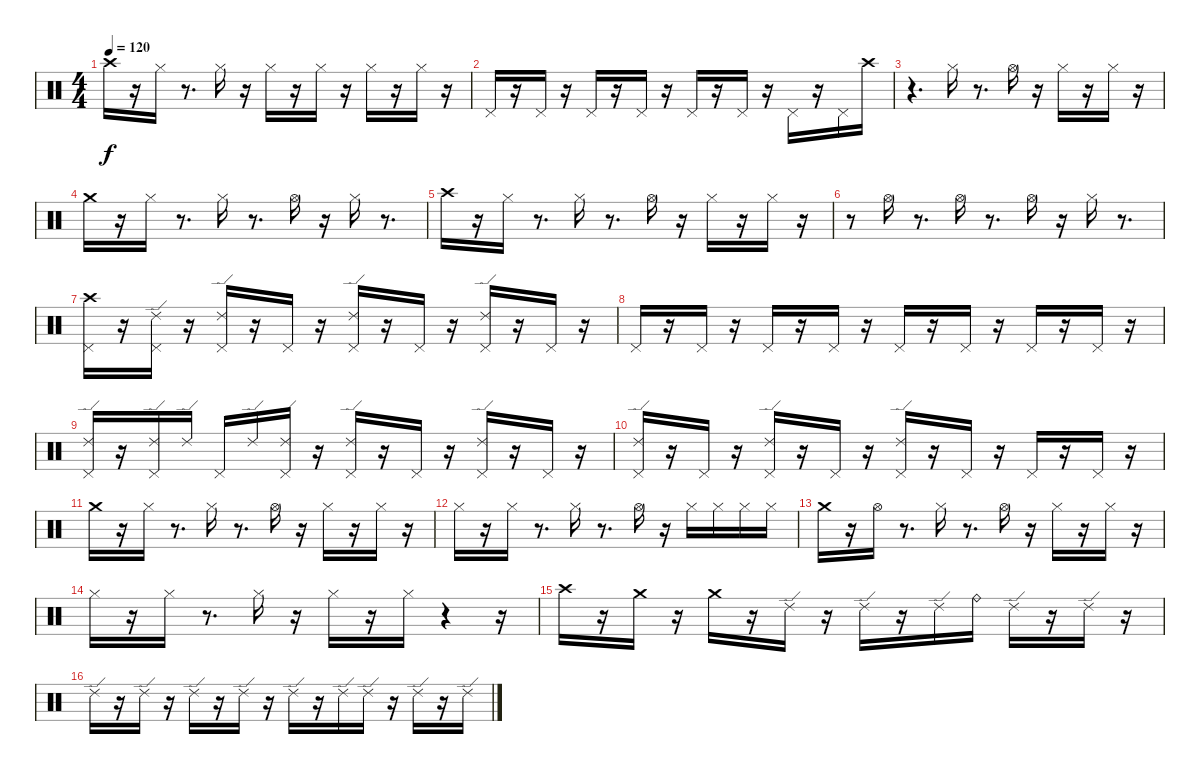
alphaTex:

\track "" {instrument percussion}
\staff {score}
\articulation defaults
\ts (4 4)
\tempo 120
\clef neutral
\ks c "Crash high (hit)".16{dy f}
r.16 "Hi-Hat (closed)".16 r.8{d} "Hi-Hat (closed)".16 r.16 "Hi-Hat (closed)".16 r.16 "Hi-Hat (closed)".16 r.16 "Hi-Hat (closed)".16 r.16 "Hi-Hat (closed)".16 r.16 |
"Pedal Hi-Hat (hit)".16 r.16 "Pedal Hi-Hat (hit)".16 r.16 "Pedal Hi-Hat (hit)".16 r.16 "Pedal Hi-Hat (hit)".16 r.16 "Pedal Hi-Hat (hit)".16 r.16 "Pedal Hi-Hat (hit)".16 r.16 "Pedal Hi-Hat (hit)".16 r.16 "Pedal Hi-Hat (hit)".16 "Crash high (hit)".16 |
r.4{d} "Hi-Hat (closed)".16 r.8{d} "Hi-Hat (open)".16 r.16 "Hi-Hat (closed)".16 r.16 "Hi-Hat (closed)".16 r.16 |
"Crash medium (hit)".16 r.16 "Hi-Hat (closed)".16 r.8{d} "Hi-Hat (closed)".16 r.8{d} "Hi-Hat (open)".16 r.16 "Hi-Hat (closed)".16 r.8{d} |
"Crash high (hit)".16 r.16 "Hi-Hat (closed)".16 r.8{d} "Hi-Hat (closed)".16 r.8{d} "Hi-Hat (open)".16 r.16 "Hi-Hat (closed)".16 r.16 "Hi-Hat (closed)".16 r.16 |
r.8 "Hi-Hat (open)".16 r.8{d} "Hi-Hat (open)".16 r.8{d} "Hi-Hat (open)".16 r.16 "Hi-Hat (closed)".16 r.8{d} |
("Pedal Hi-Hat (hit)" "Crash high (hit)").16 r.16 ("Pedal Hi-Hat (hit)" "Ride (edge) 2").16 r.16 ("Pedal Hi-Hat (hit)" "Ride (edge) 2").16 r.16 "Pedal Hi-Hat (hit)".16 r.16 ("Pedal Hi-Hat (hit)" "Ride (edge) 2").16 r.16 "Pedal Hi-Hat (hit)".16 r.16 ("Pedal Hi-Hat (hit)" "Ride (edge) 2").16 r.16 "Pedal Hi-Hat (hit)".16 r.16 |
"Pedal Hi-Hat (hit)".16 r.16 "Pedal Hi-Hat (hit)".16 r.16 "Pedal Hi-Hat (hit)".16 r.16 "Pedal Hi-Hat (hit)".16 r.16 "Pedal Hi-Hat (hit)".16 r.16 "Pedal Hi-Hat (hit)".16 r.16 "Pedal Hi-Hat (hit)".16 r.16 "Pedal Hi-Hat (hit)".16 r.16 |
("Pedal Hi-Hat (hit)" "Ride (edge) 2").16 r.16 ("Pedal Hi-Hat (hit)" "Ride (edge) 2").16 "Ride (edge) 2".16 "Pedal Hi-Hat (hit)".16 "Ride (edge) 2".16 ("Pedal Hi-Hat (hit)" "Ride (edge) 2").16 r.16 ("Pedal Hi-Hat (hit)" "Ride (edge) 2").16 r.16 "Pedal Hi-Hat (hit)".16 r.16 ("Pedal Hi-Hat (hit)" "Ride (edge) 2").16 r.16 "Pedal Hi-Hat (hit)".16 r.16 |
("Pedal Hi-Hat (hit)" "Ride (edge) 2").16 r.16 "Pedal Hi-Hat (hit)".16 r.16 ("Pedal Hi-Hat (hit)" "Ride (edge) 2").16 r.16 "Pedal Hi-Hat (hit)".16 r.16 ("Pedal Hi-Hat (hit)" "Ride (edge) 2").16 r.16 "Pedal Hi-Hat (hit)".16 r.16 "Pedal Hi-Hat (hit)".16 r.16 "Pedal Hi-Hat (hit)".16 r.16 |
"Crash medium (hit)".16 r.16 "Hi-Hat (closed)".16 r.8{d} "Hi-Hat (closed)".16 r.8{d} "Hi-Hat (open)".16 r.16 "Hi-Hat (closed)".16 r.16 "Hi-Hat (closed)".16 r.16 |
"Hi-Hat (closed)".16 r.16 "Hi-Hat (closed)".16 r.8{d} "Hi-Hat (closed)".16 r.8{d} "Hi-Hat (open)".16 r.16 "Hi-Hat (closed)".16 "Hi-Hat (closed)".16 "Hi-Hat (closed)".16 "Hi-Hat (closed)".16 |
"Crash medium (hit)".16 r.16 "Hi-Hat (open)".16 r.8{d} "Hi-Hat (closed)".16 r.8{d} "Hi-Hat (open)".16 r.16 "Hi-Hat (closed)".16 r.16 "Hi-Hat (closed)".16 r.16 |
"Hi-Hat (closed)".16 r.16 "Hi-Hat (closed)".16 r.8{d} "Hi-Hat (closed)".16 r.16 "Hi-Hat (closed)".16 r.16 "Hi-Hat (closed)".16 r.4 r.16 |
"Crash high (hit)".16 r.16 "Crash medium (hit)".16 r.16 "Crash medium (hit)".16 r.16 "Ride (edge) 2".16 r.16 "Ride (edge) 2".16 r.16 "Ride (edge) 2".16 "Ride (bell)".16 "Ride (edge) 2".16 r.16 "Ride (edge) 2".16 r.16 |
"Ride (edge) 2".16 r.16 "Ride (edge) 2".16 r.16 "Ride (edge) 2".16 r.16 "Ride (edge) 2".16 r.16 "Ride (edge) 2".16 r.16 "Ride (edge) 2".16 "Ride (edge) 2".16 r.16 "Ride (edge) 2".16 r.16 "Ride (edge) 2".16
